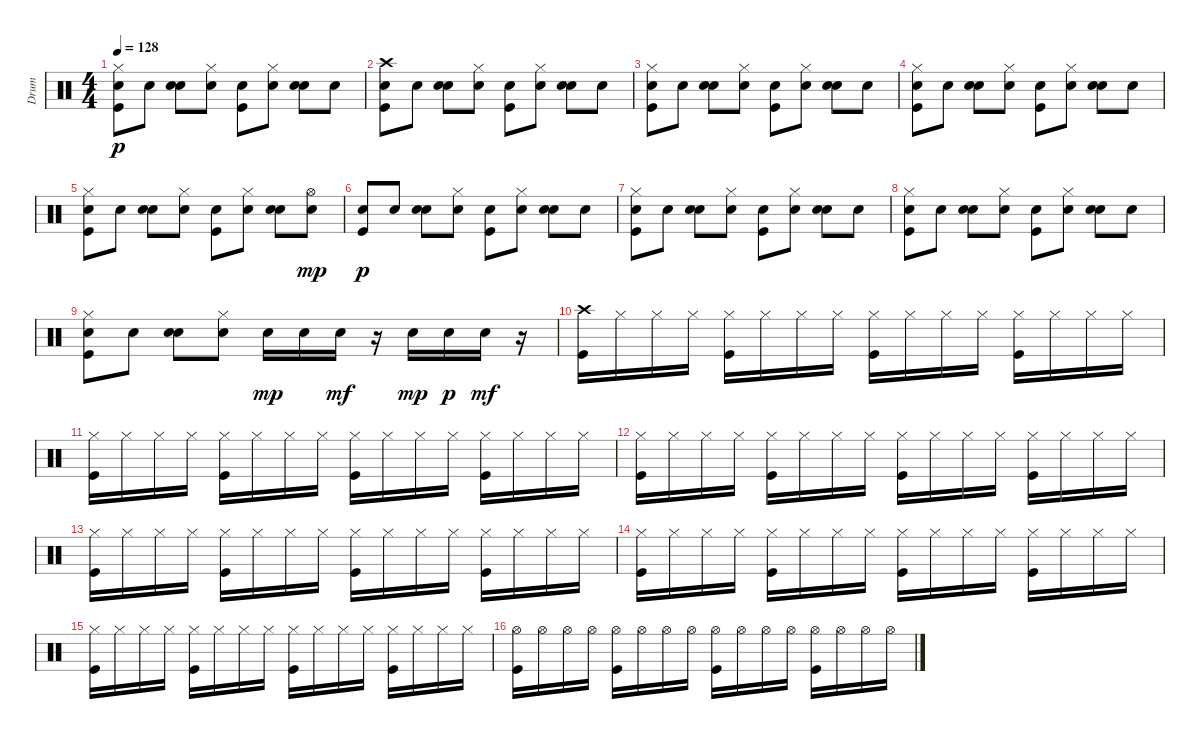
\track ("Drum" "Drum") {instrument percussion}
\staff {score}
\articulation defaults
\ts (4 4)
\tempo 128
\clef neutral
\ks c
("Snare (hit) 2" "Kick (hit)" "Hi-Hat (closed)").8{dy p} "Snare (hit) 2".8 ("Snare (hit) 2" "Snare (hit) 2").8 ("Snare (hit) 2" "Hi-Hat (closed)").8 ("Snare (hit) 2" "Kick (hit)").8 ("Snare (hit) 2" "Hi-Hat (closed)").8 ("Snare (hit) 2" "Snare (hit) 2").8 "Snare (hit) 2".8 |
("Crash high (hit)" "Snare (hit) 2" "Kick (hit)").8 "Snare (hit) 2".8 ("Snare (hit) 2" "Snare (hit) 2").8 ("Snare (hit) 2" "Hi-Hat (closed)").8 ("Snare (hit) 2" "Kick (hit)").8 ("Snare (hit) 2" "Hi-Hat (closed)").8 ("Snare (hit) 2" "Snare (hit) 2").8 "Snare (hit) 2".8 |
("Snare (hit) 2" "Kick (hit)" "Hi-Hat (closed)").8 "Snare (hit) 2".8 ("Snare (hit) 2" "Snare (hit) 2").8 ("Snare (hit) 2" "Hi-Hat (closed)").8 ("Snare (hit) 2" "Kick (hit)").8 ("Snare (hit) 2" "Hi-Hat (closed)").8 ("Snare (hit) 2" "Snare (hit) 2").8 "Snare (hit) 2".8 |
("Snare (hit) 2" "Kick (hit)" "Hi-Hat (closed)").8 "Snare (hit) 2".8 ("Snare (hit) 2" "Snare (hit) 2").8 ("Snare (hit) 2" "Hi-Hat (closed)").8 ("Snare (hit) 2" "Kick (hit)").8 ("Snare (hit) 2" "Hi-Hat (closed)").8 ("Snare (hit) 2" "Snare (hit) 2").8 "Snare (hit) 2".8 |
("Snare (hit) 2" "Kick (hit)" "Hi-Hat (closed)").8 "Snare (hit) 2".8 ("Snare (hit) 2" "Snare (hit) 2").8 ("Snare (hit) 2" "Hi-Hat (closed)").8 ("Snare (hit) 2" "Kick (hit)").8 ("Snare (hit) 2" "Hi-Hat (closed)").8 ("Snare (hit) 2" "Snare (hit) 2").8 ("Snare (hit) 2" "Hi-Hat (open)").8{dy mp} |
("Snare (hit) 2" "Kick (hit)").8{dy p} "Snare (hit) 2".8 ("Snare (hit) 2" "Snare (hit) 2").8 ("Snare (hit) 2" "Hi-Hat (closed)").8 ("Snare (hit) 2" "Kick (hit)").8 ("Snare (hit) 2" "Hi-Hat (closed)").8 ("Snare (hit) 2" "Snare (hit) 2").8 "Snare (hit) 2".8 |
("Snare (hit) 2" "Kick (hit)" "Hi-Hat (closed)").8 "Snare (hit) 2".8 ("Snare (hit) 2" "Snare (hit) 2").8 ("Snare (hit) 2" "Hi-Hat (closed)").8 ("Snare (hit) 2" "Kick (hit)").8 ("Snare (hit) 2" "Hi-Hat (closed)").8 ("Snare (hit) 2" "Snare (hit) 2").8 "Snare (hit) 2".8 |
("Snare (hit) 2" "Kick (hit)" "Hi-Hat (closed)").8 "Snare (hit) 2".8 ("Snare (hit) 2" "Snare (hit) 2").8 ("Snare (hit) 2" "Hi-Hat (closed)").8 ("Snare (hit) 2" "Kick (hit)").8 ("Snare (hit) 2" "Hi-Hat (closed)").8 ("Snare (hit) 2" "Snare (hit) 2").8 "Snare (hit) 2".8 |
("Snare (hit) 2" "Kick (hit)" "Hi-Hat (closed)").8 "Snare (hit) 2".8 ("Snare (hit) 2" "Snare (hit) 2").8 ("Snare (hit) 2" "Hi-Hat (closed)").8 "Snare (hit) 2".16{dy mp} "Snare (hit) 2".16 "Snare (hit) 2".16{dy mf} r.16 "Snare (hit) 2".16{dy mp} "Snare (hit) 2".16{dy p} "Snare (hit) 2".16{dy mf} r.16 |
("Crash high (hit)" "Kick (hit)").16 "Hi-Hat (closed)".16 "Hi-Hat (closed)".16 "Hi-Hat (closed)".16 ("Hi-Hat (closed)" "Kick (hit)").16 "Hi-Hat (closed)".16 "Hi-Hat (closed)".16 "Hi-Hat (closed)".16 ("Hi-Hat (closed)" "Kick (hit)").16 "Hi-Hat (closed)".16 "Hi-Hat (closed)".16 "Hi-Hat (closed)".16 ("Hi-Hat (closed)" "Kick (hit)").16 "Hi-Hat (closed)".16 "Hi-Hat (closed)".16 "Hi-Hat (closed)".16 |
("Hi-Hat (closed)" "Kick (hit)").16 "Hi-Hat (closed)".16 "Hi-Hat (closed)".16 "Hi-Hat (closed)".16 ("Hi-Hat (closed)" "Kick (hit)").16 "Hi-Hat (closed)".16 "Hi-Hat (closed)".16 "Hi-Hat (closed)".16 ("Hi-Hat (closed)" "Kick (hit)").16 "Hi-Hat (closed)".16 "Hi-Hat (closed)".16 "Hi-Hat (closed)".16 ("Hi-Hat (closed)" "Kick (hit)").16 "Hi-Hat (closed)".16 "Hi-Hat (closed)".16 "Hi-Hat (closed)".16 |
("Hi-Hat (closed)" "Kick (hit)").16 "Hi-Hat (closed)".16 "Hi-Hat (closed)".16 "Hi-Hat (closed)".16 ("Hi-Hat (closed)" "Kick (hit)").16 "Hi-Hat (closed)".16 "Hi-Hat (closed)".16 "Hi-Hat (closed)".16 ("Hi-Hat (closed)" "Kick (hit)").16 "Hi-Hat (closed)".16 "Hi-Hat (closed)".16 "Hi-Hat (closed)".16 ("Hi-Hat (closed)" "Kick (hit)").16 "Hi-Hat (closed)".16 "Hi-Hat (closed)".16 "Hi-Hat (closed)".16 |
("Hi-Hat (closed)" "Kick (hit)").16 "Hi-Hat (closed)".16 "Hi-Hat (closed)".16 "Hi-Hat (closed)".16 ("Hi-Hat (closed)" "Kick (hit)").16 "Hi-Hat (closed)".16 "Hi-Hat (closed)".16 "Hi-Hat (closed)".16 ("Hi-Hat (closed)" "Kick (hit)").16 "Hi-Hat (closed)".16 "Hi-Hat (closed)".16 "Hi-Hat (closed)".16 ("Hi-Hat (closed)" "Kick (hit)").16 "Hi-Hat (closed)".16 "Hi-Hat (closed)".16 "Hi-Hat (closed)".16 |
("Hi-Hat (closed)" "Kick (hit)").16 "Hi-Hat (closed)".16 "Hi-Hat (closed)".16 "Hi-Hat (closed)".16 ("Hi-Hat (closed)" "Kick (hit)").16 "Hi-Hat (closed)".16 "Hi-Hat (closed)".16 "Hi-Hat (closed)".16 ("Hi-Hat (closed)" "Kick (hit)").16 "Hi-Hat (closed)".16 "Hi-Hat (closed)".16 "Hi-Hat (closed)".16 ("Hi-Hat (closed)" "Kick (hit)").16 "Hi-Hat (closed)".16 "Hi-Hat (closed)".16 "Hi-Hat (closed)".16 |
("Hi-Hat (closed)" "Kick (hit)").16 "Hi-Hat (closed)".16 "Hi-Hat (closed)".16 "Hi-Hat (closed)".16 ("Hi-Hat (closed)" "Kick (hit)").16 "Hi-Hat (closed)".16 "Hi-Hat (closed)".16 "Hi-Hat (closed)".16 ("Hi-Hat (closed)" "Kick (hit)").16 "Hi-Hat (closed)".16 "Hi-Hat (closed)".16 "Hi-Hat (closed)".16 ("Hi-Hat (closed)" "Kick (hit)").16 "Hi-Hat (closed)".16 "Hi-Hat (closed)".16 "Hi-Hat (closed)".16 |
("Hi-Hat (open)" "Kick (hit)").16 "Hi-Hat (open)".16 "Hi-Hat (open)".16 "Hi-Hat (open)".16 ("Hi-Hat (open)" "Kick (hit)").16 "Hi-Hat (open)".16 "Hi-Hat (open)".16 "Hi-Hat (open)".16 ("Hi-Hat (open)" "Kick (hit)").16 "Hi-Hat (open)".16 "Hi-Hat (open)".16 "Hi-Hat (open)".16 ("Hi-Hat (open)" "Kick (hit)").16 "Hi-Hat (open)".16 "Hi-Hat (open)".16 "Hi-Hat (open)".16
